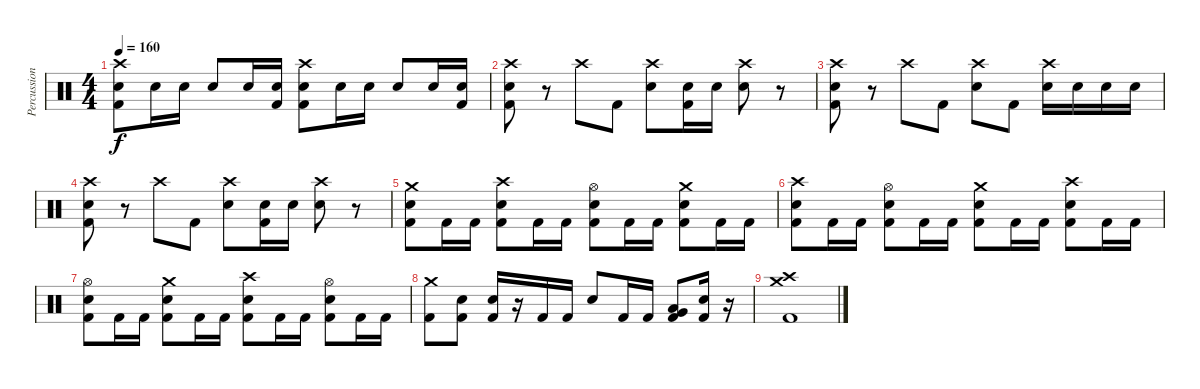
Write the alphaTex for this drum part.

\track ("Percussion" "Percussion") {instrument percussion}
\staff {score}
\articulation defaults
\ts (4 4)
\tempo 160
\clef neutral
\ks c
("Crash high (hit)" "Electric Snare (hit)" "Kick (hit) 2").8{dy f} "Electric Snare (hit)".16 "Electric Snare (hit)".16 "Electric Snare (hit)".8 "Electric Snare (hit)".16 ("Electric Snare (hit)" "Kick (hit) 2").16 ("Crash high (hit)" "Electric Snare (hit)" "Kick (hit) 2").8 "Electric Snare (hit)".16 "Electric Snare (hit)".16 "Electric Snare (hit)".8 "Electric Snare (hit)".16 ("Electric Snare (hit)" "Kick (hit) 2").16 |
("Crash high (hit)" "Electric Snare (hit)" "Kick (hit) 2").8 r.8 "Crash high (hit)".8 "Kick (hit) 2".8 ("Crash high (hit)" "Electric Snare (hit)").8 ("Electric Snare (hit)" "Kick (hit) 2").16 "Electric Snare (hit)".16 ("Crash high (hit)" "Electric Snare (hit)").8 r.8 |
("Crash high (hit)" "Electric Snare (hit)" "Kick (hit) 2").8 r.8 "Crash high (hit)".8 "Kick (hit) 2".8 ("Crash high (hit)" "Electric Snare (hit)").8 "Kick (hit) 2".8 ("Crash high (hit)" "Electric Snare (hit)").16 "Electric Snare (hit)".16 "Electric Snare (hit)".16 "Electric Snare (hit)".16 |
("Crash high (hit)" "Electric Snare (hit)" "Kick (hit) 2").8 r.8 "Crash high (hit)".8 "Kick (hit) 2".8 ("Crash high (hit)" "Electric Snare (hit)").8 ("Electric Snare (hit)" "Kick (hit) 2").16 "Electric Snare (hit)".16 ("Crash high (hit)" "Electric Snare (hit)").8 r.8 |
("Crash medium (hit)" "Electric Snare (hit)" "Kick (hit) 2").8 "Kick (hit) 2".16 "Kick (hit) 2".16 ("Crash high (hit)" "Electric Snare (hit)" "Kick (hit) 2").8 "Kick (hit) 2".16 "Kick (hit) 2".16 ("Hi-Hat (open)" "Electric Snare (hit)" "Kick (hit) 2").8 "Kick (hit) 2".16 "Kick (hit) 2".16 ("Crash medium (hit)" "Electric Snare (hit)" "Kick (hit) 2").8 "Kick (hit) 2".16 "Kick (hit) 2".16 |
("Crash high (hit)" "Electric Snare (hit)" "Kick (hit) 2").8 "Kick (hit) 2".16 "Kick (hit) 2".16 ("Hi-Hat (open)" "Electric Snare (hit)" "Kick (hit) 2").8 "Kick (hit) 2".16 "Kick (hit) 2".16 ("Crash medium (hit)" "Electric Snare (hit)" "Kick (hit) 2").8 "Kick (hit) 2".16 "Kick (hit) 2".16 ("Crash high (hit)" "Electric Snare (hit)" "Kick (hit) 2").8 "Kick (hit) 2".16 "Kick (hit) 2".16 |
("Hi-Hat (open)" "Electric Snare (hit)" "Kick (hit) 2").8 "Kick (hit) 2".16 "Kick (hit) 2".16 ("Crash medium (hit)" "Electric Snare (hit)" "Kick (hit) 2").8 "Kick (hit) 2".16 "Kick (hit) 2".16 ("Crash high (hit)" "Electric Snare (hit)" "Kick (hit) 2").8 "Kick (hit) 2".16 "Kick (hit) 2".16 ("Hi-Hat (open)" "Electric Snare (hit)" "Kick (hit) 2").8 "Kick (hit) 2".16 "Kick (hit) 2".16 |
("Crash medium (hit)" "Kick (hit) 2").8 ("Electric Snare (hit)" "Kick (hit) 2").8 ("Electric Snare (hit)" "Kick (hit) 2").16 r.16 "Kick (hit) 2".16 "Kick (hit) 2".16 "Electric Snare (hit)".8 "Kick (hit) 2".16 "Kick (hit) 2".16 ("Very Low Tom (hit)" "Low Tom (hit)" "Kick (hit) 2").8 ("Electric Snare (hit)" "Kick (hit) 2").16 r.16 |
("Crash medium (hit)" "Crash high (hit)" "Kick (hit) 2").1
